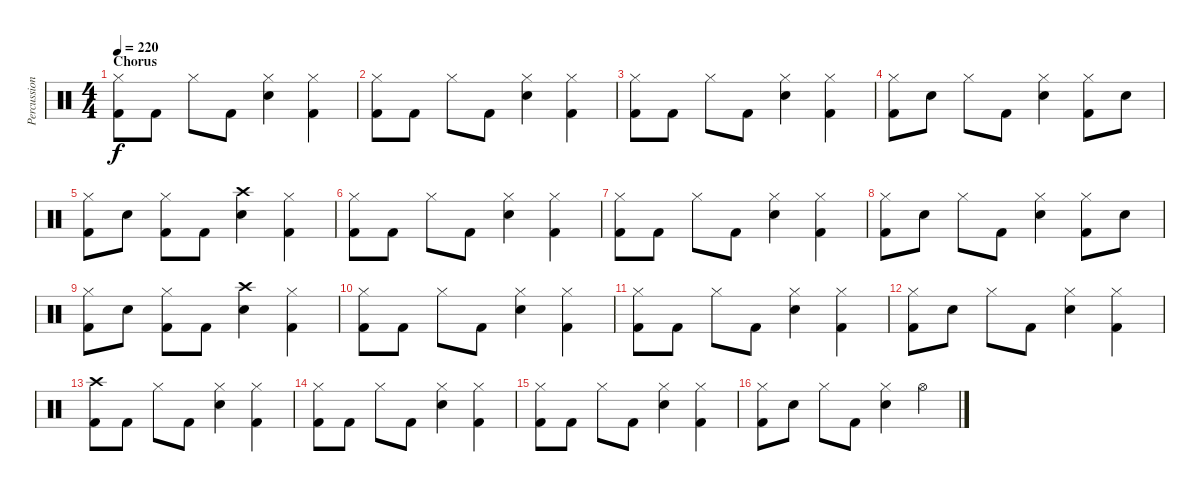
\track ("Percussion" "Percussion") {instrument percussion}
\staff {score}
\articulation defaults
\ts (4 4)
\section ("" "Chorus")
\tempo 220
\clef neutral
\ks c
("Hi-Hat (closed)" "Kick (hit) 2").8{dy f} "Kick (hit) 2".8 "Hi-Hat (closed)".8 "Kick (hit) 2".8 ("Hi-Hat (closed)" "Snare (hit) 2").4 ("Hi-Hat (closed)" "Kick (hit) 2").4 |
("Hi-Hat (closed)" "Kick (hit) 2").8 "Kick (hit) 2".8 "Hi-Hat (closed)".8 "Kick (hit) 2".8 ("Hi-Hat (closed)" "Snare (hit) 2").4 ("Hi-Hat (closed)" "Kick (hit) 2").4 |
("Hi-Hat (closed)" "Kick (hit) 2").8 "Kick (hit) 2".8 "Hi-Hat (closed)".8 "Kick (hit) 2".8 ("Hi-Hat (closed)" "Snare (hit) 2").4 ("Hi-Hat (closed)" "Kick (hit) 2").4 |
("Hi-Hat (closed)" "Kick (hit) 2").8 "Snare (hit) 2".8 "Hi-Hat (closed)".8 "Kick (hit) 2".8 ("Hi-Hat (closed)" "Snare (hit) 2").4 ("Hi-Hat (closed)" "Kick (hit) 2").8 "Snare (hit) 2".8 |
("Hi-Hat (closed)" "Kick (hit) 2").8 "Snare (hit) 2".8 ("Hi-Hat (closed)" "Kick (hit) 2").8 "Kick (hit) 2".8 ("Crash high (hit)" "Snare (hit) 2").4 ("Hi-Hat (closed)" "Kick (hit) 2").4 |
("Hi-Hat (closed)" "Kick (hit) 2").8 "Kick (hit) 2".8 "Hi-Hat (closed)".8 "Kick (hit) 2".8 ("Hi-Hat (closed)" "Snare (hit) 2").4 ("Hi-Hat (closed)" "Kick (hit) 2").4 |
("Hi-Hat (closed)" "Kick (hit) 2").8 "Kick (hit) 2".8 "Hi-Hat (closed)".8 "Kick (hit) 2".8 ("Hi-Hat (closed)" "Snare (hit) 2").4 ("Hi-Hat (closed)" "Kick (hit) 2").4 |
("Hi-Hat (closed)" "Kick (hit) 2").8 "Snare (hit) 2".8 "Hi-Hat (closed)".8 "Kick (hit) 2".8 ("Hi-Hat (closed)" "Snare (hit) 2").4 ("Hi-Hat (closed)" "Kick (hit) 2").8 "Snare (hit) 2".8 |
("Hi-Hat (closed)" "Kick (hit) 2").8 "Snare (hit) 2".8 ("Hi-Hat (closed)" "Kick (hit) 2").8 "Kick (hit) 2".8 ("Crash high (hit)" "Snare (hit) 2").4 ("Hi-Hat (closed)" "Kick (hit) 2").4 |
("Hi-Hat (closed)" "Kick (hit) 2").8 "Kick (hit) 2".8 "Hi-Hat (closed)".8 "Kick (hit) 2".8 ("Hi-Hat (closed)" "Snare (hit) 2").4 ("Hi-Hat (closed)" "Kick (hit) 2").4 |
("Hi-Hat (closed)" "Kick (hit) 2").8 "Kick (hit) 2".8 "Hi-Hat (closed)".8 "Kick (hit) 2".8 ("Hi-Hat (closed)" "Snare (hit) 2").4 ("Hi-Hat (closed)" "Kick (hit) 2").4 |
("Hi-Hat (closed)" "Kick (hit) 2").8 "Snare (hit) 2".8 "Hi-Hat (closed)".8 "Kick (hit) 2".8 ("Hi-Hat (closed)" "Snare (hit) 2").4 ("Hi-Hat (closed)" "Kick (hit) 2").4 |
("Crash high (hit)" "Kick (hit) 2").8 "Kick (hit) 2".8 "Hi-Hat (closed)".8 "Kick (hit) 2".8 ("Hi-Hat (closed)" "Snare (hit) 2").4 ("Hi-Hat (closed)" "Kick (hit) 2").4 |
("Hi-Hat (closed)" "Kick (hit) 2").8 "Kick (hit) 2".8 "Hi-Hat (closed)".8 "Kick (hit) 2".8 ("Hi-Hat (closed)" "Snare (hit) 2").4 ("Hi-Hat (closed)" "Kick (hit) 2").4 |
("Hi-Hat (closed)" "Kick (hit) 2").8 "Kick (hit) 2".8 "Hi-Hat (closed)".8 "Kick (hit) 2".8 ("Hi-Hat (closed)" "Snare (hit) 2").4 ("Hi-Hat (closed)" "Kick (hit) 2").4 |
("Hi-Hat (closed)" "Kick (hit) 2").8 "Snare (hit) 2".8 "Hi-Hat (closed)".8 "Kick (hit) 2".8 ("Hi-Hat (closed)" "Snare (hit) 2").4 "Hi-Hat (open)".4
